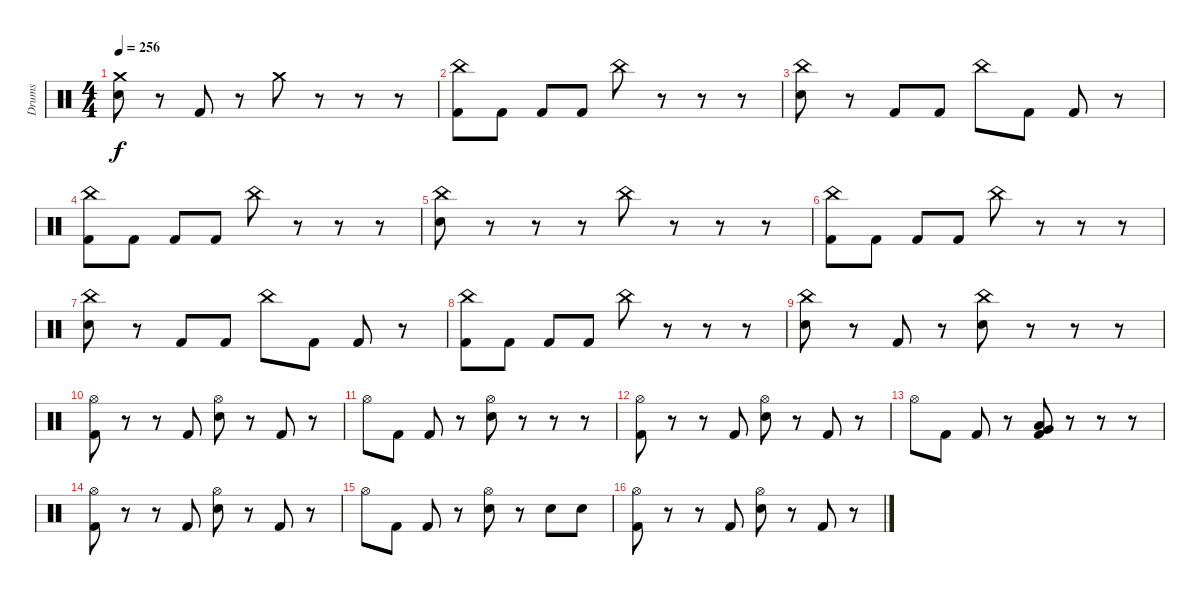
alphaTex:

\track ("Drums" "Drums") {instrument percussion}
\staff {score}
\articulation defaults
\ts (4 4)
\tempo 256
\clef neutral
\ks c
("Crash medium (hit)" "Electric Snare (hit)").8{dy f} r.8 "Kick (hit) 2".8 r.8 "Crash medium (hit)".8 r.8 r.8 r.8 |
("China (hit)" "Kick (hit) 2").8 "Kick (hit) 2".8 "Kick (hit) 2".8 "Kick (hit) 2".8 "China (hit)".8 r.8 r.8 r.8 |
("China (hit)" "Electric Snare (hit)").8 r.8 "Kick (hit) 2".8 "Kick (hit) 2".8 "China (hit)".8 "Kick (hit) 2".8 "Kick (hit) 2".8 r.8 |
("China (hit)" "Kick (hit) 2").8 "Kick (hit) 2".8 "Kick (hit) 2".8 "Kick (hit) 2".8 "China (hit)".8 r.8 r.8 r.8 |
("China (hit)" "Electric Snare (hit)").8 r.8 r.8 r.8 "China (hit)".8 r.8 r.8 r.8 |
("China (hit)" "Kick (hit) 2").8 "Kick (hit) 2".8 "Kick (hit) 2".8 "Kick (hit) 2".8 "China (hit)".8 r.8 r.8 r.8 |
("China (hit)" "Electric Snare (hit)").8 r.8 "Kick (hit) 2".8 "Kick (hit) 2".8 "China (hit)".8 "Kick (hit) 2".8 "Kick (hit) 2".8 r.8 |
("China (hit)" "Kick (hit) 2").8 "Kick (hit) 2".8 "Kick (hit) 2".8 "Kick (hit) 2".8 "China (hit)".8 r.8 r.8 r.8 |
("China (hit)" "Electric Snare (hit)").8 r.8 "Kick (hit) 2".8 r.8 ("China (hit)" "Electric Snare (hit)").8 r.8 r.8 r.8 |
("Hi-Hat (open)" "Kick (hit) 2").8 r.8 r.8 "Kick (hit) 2".8 ("Hi-Hat (open)" "Electric Snare (hit)").8 r.8 "Kick (hit) 2".8 r.8 |
"Hi-Hat (open)".8 "Kick (hit) 2".8 "Kick (hit) 2".8 r.8 ("Hi-Hat (open)" "Electric Snare (hit)").8 r.8 r.8 r.8 |
("Hi-Hat (open)" "Kick (hit) 2").8 r.8 r.8 "Kick (hit) 2".8 ("Hi-Hat (open)" "Electric Snare (hit)").8 r.8 "Kick (hit) 2".8 r.8 |
"Hi-Hat (open)".8 "Kick (hit) 2".8 "Kick (hit) 2".8 r.8 ("Low Tom (hit)" "Very Low Tom (hit)" "Kick (hit) 2").8 r.8 r.8 r.8 |
("Hi-Hat (open)" "Kick (hit) 2").8 r.8 r.8 "Kick (hit) 2".8 ("Hi-Hat (open)" "Electric Snare (hit)").8 r.8 "Kick (hit) 2".8 r.8 |
"Hi-Hat (open)".8 "Kick (hit) 2".8 "Kick (hit) 2".8 r.8 ("Hi-Hat (open)" "Electric Snare (hit)").8 r.8 "Electric Snare (hit)".8 "Electric Snare (hit)".8 |
("Hi-Hat (open)" "Kick (hit) 2").8 r.8 r.8 "Kick (hit) 2".8 ("Hi-Hat (open)" "Electric Snare (hit)").8 r.8 "Kick (hit) 2".8 r.8
